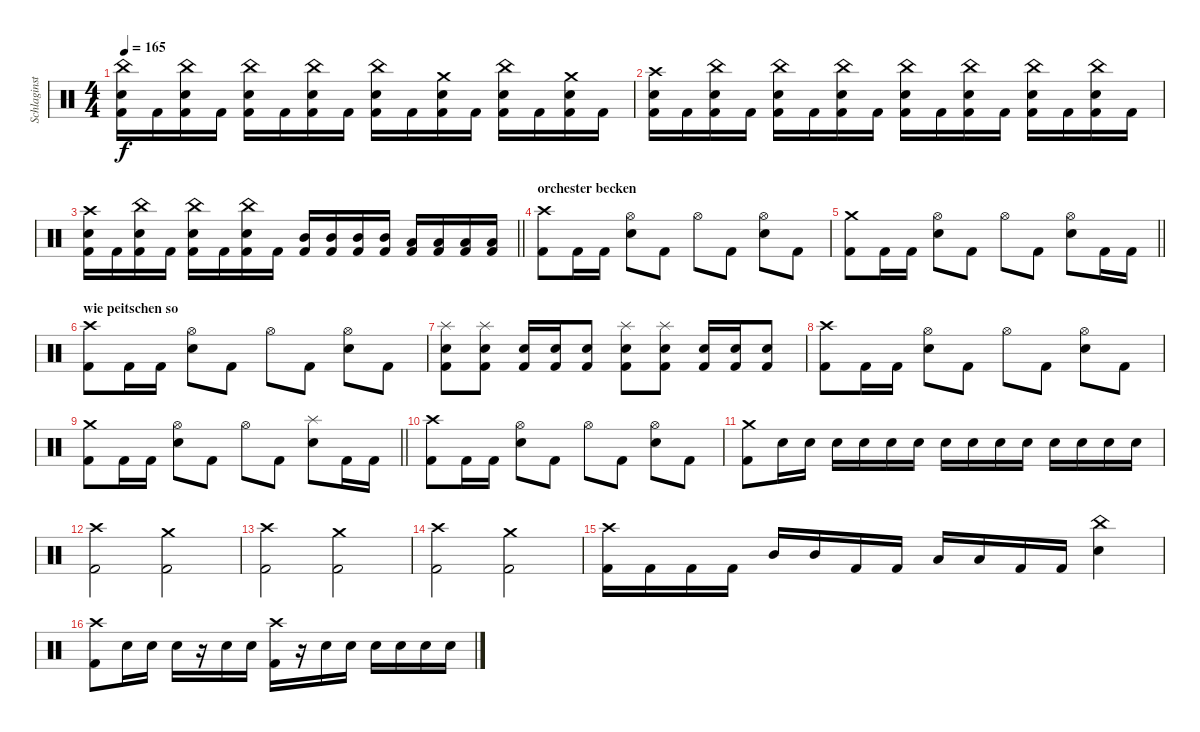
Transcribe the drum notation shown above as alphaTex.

\track ("Schlaginstrumente - Auswahl" "Schlaginst") {instrument percussion}
\staff {score}
\articulation defaults
\ts (4 4)
\tempo 165
\clef neutral
\ks c
("China (hit)" "Snare (hit) 2" "Kick (hit) 2").16{dy f} "Kick (hit) 2".16 ("China (hit)" "Snare (hit) 2" "Kick (hit) 2").16 "Kick (hit) 2".16 ("China (hit)" "Snare (hit) 2" "Kick (hit) 2").16 "Kick (hit) 2".16 ("China (hit)" "Snare (hit) 2" "Kick (hit) 2").16 "Kick (hit) 2".16 ("China (hit)" "Snare (hit) 2" "Kick (hit) 2").16 "Kick (hit) 2".16 ("Crash medium (hit)" "Snare (hit) 2" "Kick (hit) 2").16 "Kick (hit) 2".16 ("China (hit)" "Snare (hit) 2" "Kick (hit) 2").16 "Kick (hit) 2".16 ("Crash medium (hit)" "Snare (hit) 2" "Kick (hit) 2").16 "Kick (hit) 2".16 |
("Crash high (hit)" "Snare (hit) 2" "Kick (hit) 2").16 "Kick (hit) 2".16 ("China (hit)" "Snare (hit) 2" "Kick (hit) 2").16 "Kick (hit) 2".16 ("China (hit)" "Snare (hit) 2" "Kick (hit) 2").16 "Kick (hit) 2".16 ("China (hit)" "Snare (hit) 2" "Kick (hit) 2").16 "Kick (hit) 2".16 ("China (hit)" "Snare (hit) 2" "Kick (hit) 2").16 "Kick (hit) 2".16 ("China (hit)" "Snare (hit) 2" "Kick (hit) 2").16 "Kick (hit) 2".16 ("China (hit)" "Snare (hit) 2" "Kick (hit) 2").16 "Kick (hit) 2".16 ("China (hit)" "Snare (hit) 2" "Kick (hit) 2").16 "Kick (hit) 2".16 |
\barLineRight lightlight
("Crash high (hit)" "Snare (hit) 2" "Kick (hit) 2").16 "Kick (hit) 2".16 ("China (hit)" "Snare (hit) 2" "Kick (hit) 2").16 "Kick (hit) 2".16 ("China (hit)" "Snare (hit) 2" "Kick (hit) 2").16 "Kick (hit) 2".16 ("China (hit)" "Snare (hit) 2" "Kick (hit) 2").16 "Kick (hit) 2".16 ("Mid Tom (hit)" "Kick (hit) 2").16 ("Mid Tom (hit)" "Kick (hit) 2").16 ("Mid Tom (hit)" "Kick (hit) 2").16 ("Mid Tom (hit)" "Kick (hit) 2").16 ("Low Tom (hit)" "Kick (hit) 2").16 ("Low Tom (hit)" "Kick (hit) 2").16 ("Low Tom (hit)" "Kick (hit) 2").16 ("Low Tom (hit)" "Kick (hit) 2").16 |
\section ("" "orchester becken")
("Crash high (hit)" "Kick (hit) 2").8 "Kick (hit) 2".16 "Kick (hit) 2".16 ("Hi-Hat (open)" "Snare (hit) 2").8 "Kick (hit) 2".8 "Hi-Hat (open)".8 "Kick (hit) 2".8 ("Hi-Hat (open)" "Snare (hit) 2").8 "Kick (hit) 2".8 |
\barLineRight lightlight
("Crash medium (hit)" "Kick (hit) 2").8 "Kick (hit) 2".16 "Kick (hit) 2".16 ("Hi-Hat (open)" "Snare (hit) 2").8 "Kick (hit) 2".8 "Hi-Hat (open)".8 "Kick (hit) 2".8 ("Hi-Hat (open)" "Snare (hit) 2").8 "Kick (hit) 2".16 "Kick (hit) 2".16 |
\section ("" "wie peitschen so ")
("Crash high (hit)" "Kick (hit) 2").8 "Kick (hit) 2".16 "Kick (hit) 2".16 ("Hi-Hat (open)" "Snare (hit) 2").8 "Kick (hit) 2".8 "Hi-Hat (open)".8 "Kick (hit) 2".8 ("Hi-Hat (open)" "Snare (hit) 2").8 "Kick (hit) 2".8 |
("Splash (hit)" "Snare (hit) 2" "Kick (hit) 2").8 ("Splash (hit)" "Snare (hit) 2" "Kick (hit) 2").8 ("Snare (hit) 2" "Kick (hit) 2").16 ("Snare (hit) 2" "Kick (hit) 2").16 ("Snare (hit) 2" "Kick (hit) 2").8 ("Splash (hit)" "Snare (hit) 2" "Kick (hit) 2").8 ("Splash (hit)" "Snare (hit) 2" "Kick (hit) 2").8 ("Snare (hit) 2" "Kick (hit) 2").16 ("Snare (hit) 2" "Kick (hit) 2").16 ("Snare (hit) 2" "Kick (hit) 2").8 |
("Crash high (hit)" "Kick (hit) 2").8 "Kick (hit) 2".16 "Kick (hit) 2".16 ("Hi-Hat (open)" "Snare (hit) 2").8 "Kick (hit) 2".8 "Hi-Hat (open)".8 "Kick (hit) 2".8 ("Hi-Hat (open)" "Snare (hit) 2").8 "Kick (hit) 2".8 |
\barLineRight lightlight
("Crash medium (hit)" "Kick (hit) 2").8 "Kick (hit) 2".16 "Kick (hit) 2".16 ("Hi-Hat (open)" "Snare (hit) 2").8 "Kick (hit) 2".8 "Hi-Hat (open)".8 "Kick (hit) 2".8 ("Splash (hit)" "Snare (hit) 2").8 "Kick (hit) 2".16 "Kick (hit) 2".16 |
("Crash high (hit)" "Kick (hit) 2").8 "Kick (hit) 2".16 "Kick (hit) 2".16 ("Hi-Hat (open)" "Snare (hit) 2").8 "Kick (hit) 2".8 "Hi-Hat (open)".8 "Kick (hit) 2".8 ("Hi-Hat (open)" "Snare (hit) 2").8 "Kick (hit) 2".8 |
("Crash medium (hit)" "Kick (hit) 2").8 "Snare (hit) 2".16 "Snare (hit) 2".16 "Snare (hit) 2".16 "Snare (hit) 2".16 "Snare (hit) 2".16 "Snare (hit) 2".16 "Snare (hit) 2".16 "Snare (hit) 2".16 "Snare (hit) 2".16 "Snare (hit) 2".16 "Snare (hit) 2".16 "Snare (hit) 2".16 "Snare (hit) 2".16 "Snare (hit) 2".16 |
("Crash high (hit)" "Kick (hit) 2").2 ("Crash medium (hit)" "Kick (hit) 2").2 |
("Crash high (hit)" "Kick (hit) 2").2 ("Crash medium (hit)" "Kick (hit) 2").2 |
("Crash high (hit)" "Kick (hit) 2").2 ("Crash medium (hit)" "Kick (hit) 2").2 |
("Crash high (hit)" "Kick (hit) 2").16 "Kick (hit) 2".16 "Kick (hit) 2".16 "Kick (hit) 2".16 "Mid Tom (hit)".16 "Mid Tom (hit)".16 "Kick (hit) 2".16 "Kick (hit) 2".16 "Low Tom (hit)".16 "Low Tom (hit)".16 "Kick (hit) 2".16 "Kick (hit) 2".16 ("China (hit)" "Snare (hit) 2").4 |
("Crash high (hit)" "Kick (hit) 2").8 "Snare (hit) 2".16 "Snare (hit) 2".16 "Snare (hit) 2".16 r.16 "Snare (hit) 2".16 "Snare (hit) 2".16 ("Crash high (hit)" "Kick (hit) 2").16 r.16 "Snare (hit) 2".16 "Snare (hit) 2".16 "Snare (hit) 2".16 "Snare (hit) 2".16 "Snare (hit) 2".16 "Snare (hit) 2".16
